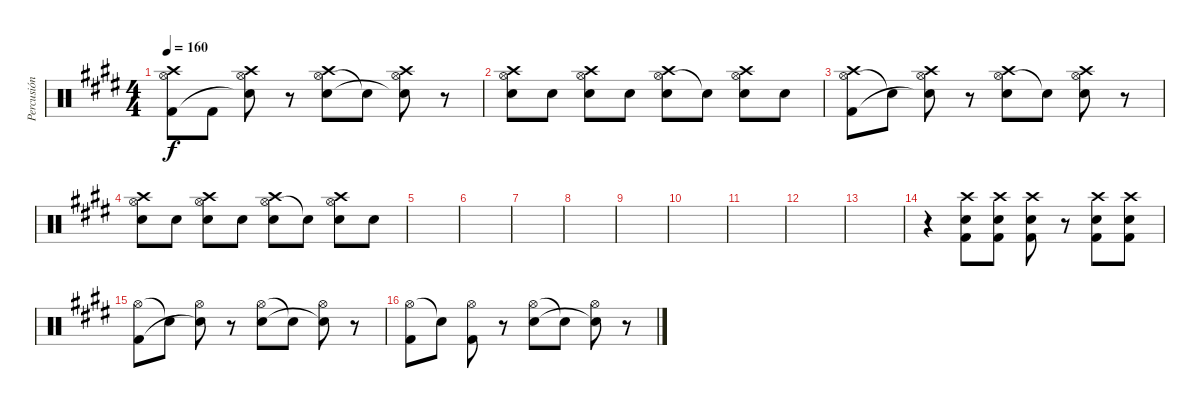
\track ("Percusión" "Percusión") {instrument percussion}
\staff {score}
\articulation defaults
\ts (4 4)
\tempo 160
\clef neutral
\ks e
("Hi-Hat (open)" "Crash high (hit)" "Kick (hit) 2").8{dy f} "Kick (hit) 2".8 ("Hi-Hat (open)" "Crash high (hit)" "Snare (hit) 2"{t}).8 r.8 ("Hi-Hat (open)" "Crash high (hit)" "Electric Snare (hit)").8 "Snare (hit) 2"{t}.8 ("Hi-Hat (open)" "Crash high (hit)" "Snare (hit) 2"{t}).8 r.8 |
("Hi-Hat (open)" "Crash high (hit)" "Electric Snare (hit)").8 "Electric Snare (hit)".8 ("Hi-Hat (open)" "Crash high (hit)" "Snare (hit) 2").8 "Electric Snare (hit)".8 ("Hi-Hat (open)" "Crash high (hit)" "Electric Snare (hit)").8 "Snare (hit) 2"{t}.8 ("Hi-Hat (open)" "Crash high (hit)" "Electric Snare (hit)").8 "Electric Snare (hit)".8 |
("Hi-Hat (open)" "Crash high (hit)" "Kick (hit) 2").8 "Snare (hit) 2"{t}.8 ("Hi-Hat (open)" "Crash high (hit)" "Snare (hit) 2"{t}).8 r.8 ("Hi-Hat (open)" "Crash high (hit)" "Electric Snare (hit)").8 "Snare (hit) 2"{t}.8 ("Hi-Hat (open)" "Crash high (hit)" "Electric Snare (hit)").8 r.8 |
("Hi-Hat (open)" "Crash high (hit)" "Electric Snare (hit)").8 "Electric Snare (hit)".8 ("Hi-Hat (open)" "Crash high (hit)" "Snare (hit) 2").8 "Electric Snare (hit)".8 ("Hi-Hat (open)" "Crash high (hit)" "Electric Snare (hit)").8 "Snare (hit) 2"{t}.8 ("Hi-Hat (open)" "Crash high (hit)" "Electric Snare (hit)").8 "Electric Snare (hit)".8 |
|
|
|
|
|
|
|
|
|
r.4 ("Kick (hit) 2" "Crash high (hit)" "Electric Snare (hit)").8 ("Kick (hit) 2" "Crash high (hit)" "Electric Snare (hit)").8 ("Kick (hit) 2" "Crash high (hit)" "Electric Snare (hit)").8 r.8 ("Kick (hit) 2" "Crash high (hit)" "Electric Snare (hit)").8 ("Kick (hit) 2" "Crash high (hit)" "Electric Snare (hit)").8 |
("Hi-Hat (open)" "Kick (hit) 2").8 "Snare (hit) 2"{t}.8 ("Hi-Hat (open)" "Snare (hit) 2"{t}).8 r.8 ("Hi-Hat (open)" "Electric Snare (hit)").8 "Snare (hit) 2"{t}.8 ("Hi-Hat (open)" "Snare (hit) 2"{t}).8 r.8 |
("Hi-Hat (open)" "Kick (hit) 2").8 "Snare (hit) 2"{t}.8 ("Hi-Hat (open)" "Kick (hit) 2").8 r.8 ("Hi-Hat (open)" "Electric Snare (hit)").8 "Snare (hit) 2"{t}.8 ("Hi-Hat (open)" "Snare (hit) 2"{t}).8 r.8
